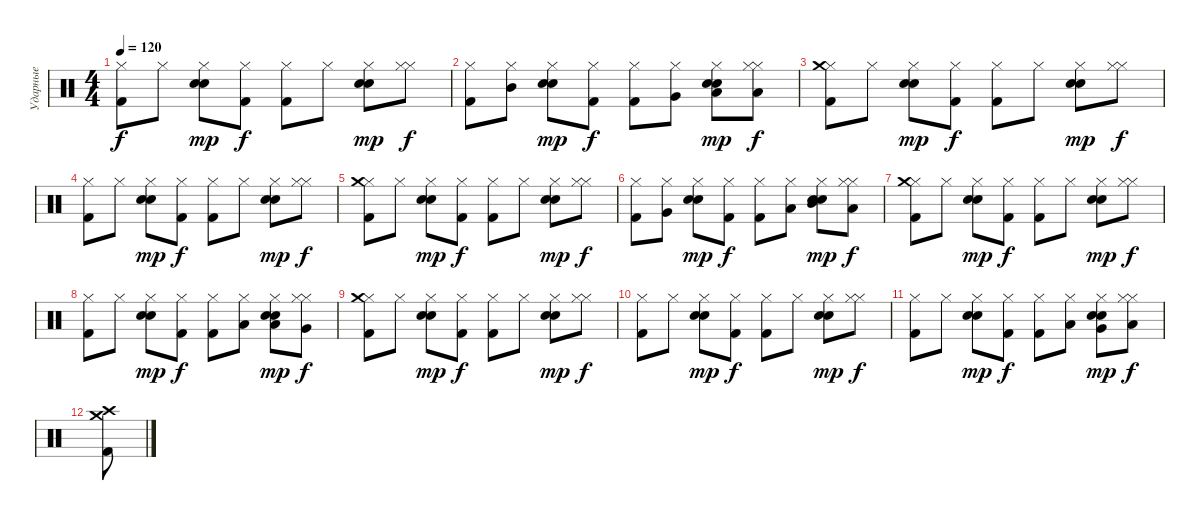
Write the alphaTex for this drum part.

\track ("Ударные" "Ударные") {instrument percussion}
\staff {score}
\articulation defaults
\ts (4 4)
\tempo 120
\clef neutral
\ks c
("Kick (hit) 2" "Hi-Hat (closed)").8{dy f} "Hi-Hat (closed)".8 ("Hand Clap (hit)" "Hi-Hat (closed)" "Electric Snare (hit)").8{dy mp} ("Kick (hit) 2" "Hi-Hat (closed)").8{dy f} ("Kick (hit) 2" "Hi-Hat (closed)").8 "Hi-Hat (closed)".8 ("Hand Clap (hit)" "Hi-Hat (closed)" "Electric Snare (hit)").8{dy mp} ("Hi-Hat (closed)" "Hi-Hat (closed)").8{dy f} |
("Kick (hit) 2" "Hi-Hat (closed)").8 ("Hi-Hat (closed)" "Mid Tom (hit)").8 ("Hand Clap (hit)" "Hi-Hat (closed)" "Electric Snare (hit)").8{dy mp} ("Kick (hit) 2" "Hi-Hat (closed)").8{dy f} ("Kick (hit) 2" "Hi-Hat (closed)").8 ("Hi-Hat (closed)" "Very Low Tom (hit)").8 ("Hand Clap (hit)" "Hi-Hat (closed)" "Electric Snare (hit)" "Low Floor Tom (hit)").8{dy mp} ("Hi-Hat (closed)" "Hi-Hat (closed)" "Low Tom (hit)").8{dy f} |
("Kick (hit) 2" "Hi-Hat (closed)" "Crash medium (hit)").8 "Hi-Hat (closed)".8 ("Hand Clap (hit)" "Hi-Hat (closed)" "Electric Snare (hit)").8{dy mp} ("Kick (hit) 2" "Hi-Hat (closed)").8{dy f} ("Kick (hit) 2" "Hi-Hat (closed)").8 "Hi-Hat (closed)".8 ("Hand Clap (hit)" "Hi-Hat (closed)" "Electric Snare (hit)").8{dy mp} ("Hi-Hat (closed)" "Hi-Hat (closed)").8{dy f} |
("Kick (hit) 2" "Hi-Hat (closed)").8 "Hi-Hat (closed)".8 ("Hand Clap (hit)" "Hi-Hat (closed)" "Electric Snare (hit)").8{dy mp} ("Kick (hit) 2" "Hi-Hat (closed)").8{dy f} ("Kick (hit) 2" "Hi-Hat (closed)").8 "Hi-Hat (closed)".8 ("Hand Clap (hit)" "Hi-Hat (closed)" "Electric Snare (hit)").8{dy mp} ("Hi-Hat (closed)" "Hi-Hat (closed)").8{dy f} |
("Kick (hit) 2" "Hi-Hat (closed)" "Crash medium (hit)").8 "Hi-Hat (closed)".8 ("Hand Clap (hit)" "Hi-Hat (closed)" "Electric Snare (hit)").8{dy mp} ("Kick (hit) 2" "Hi-Hat (closed)").8{dy f} ("Kick (hit) 2" "Hi-Hat (closed)").8 "Hi-Hat (closed)".8 ("Hand Clap (hit)" "Hi-Hat (closed)" "Electric Snare (hit)").8{dy mp} ("Hi-Hat (closed)" "Hi-Hat (closed)").8{dy f} |
("Kick (hit) 2" "Hi-Hat (closed)").8 ("Hi-Hat (closed)" "Very Low Tom (hit)").8 ("Hand Clap (hit)" "Hi-Hat (closed)" "Electric Snare (hit)").8{dy mp} ("Kick (hit) 2" "Hi-Hat (closed)").8{dy f} ("Kick (hit) 2" "Hi-Hat (closed)").8 ("Hi-Hat (closed)" "Low Tom (hit)").8 ("Hand Clap (hit)" "Hi-Hat (closed)" "Electric Snare (hit)" "Mid Tom (hit)").8{dy mp} ("Hi-Hat (closed)" "Hi-Hat (closed)" "Low Floor Tom (hit)").8{dy f} |
("Kick (hit) 2" "Hi-Hat (closed)" "Crash medium (hit)").8 "Hi-Hat (closed)".8 ("Hand Clap (hit)" "Hi-Hat (closed)" "Electric Snare (hit)").8{dy mp} ("Kick (hit) 2" "Hi-Hat (closed)").8{dy f} ("Kick (hit) 2" "Hi-Hat (closed)").8 "Hi-Hat (closed)".8 ("Hand Clap (hit)" "Hi-Hat (closed)" "Electric Snare (hit)").8{dy mp} ("Hi-Hat (closed)" "Hi-Hat (closed)").8{dy f} |
("Kick (hit) 2" "Hi-Hat (closed)").8 "Hi-Hat (closed)".8 ("Hand Clap (hit)" "Hi-Hat (closed)" "Electric Snare (hit)").8{dy mp} ("Kick (hit) 2" "Hi-Hat (closed)").8{dy f} ("Kick (hit) 2" "Hi-Hat (closed)").8 ("Hi-Hat (closed)" "Low Tom (hit)").8 ("Hand Clap (hit)" "Hi-Hat (closed)" "Electric Snare (hit)" "Low Floor Tom (hit)").8{dy mp} ("Hi-Hat (closed)" "Hi-Hat (closed)" "Very Low Tom (hit)").8{dy f} |
("Kick (hit) 2" "Hi-Hat (closed)" "Crash medium (hit)").8 "Hi-Hat (closed)".8 ("Hand Clap (hit)" "Hi-Hat (closed)" "Electric Snare (hit)").8{dy mp} ("Kick (hit) 2" "Hi-Hat (closed)").8{dy f} ("Kick (hit) 2" "Hi-Hat (closed)").8 "Hi-Hat (closed)".8 ("Hand Clap (hit)" "Hi-Hat (closed)" "Electric Snare (hit)").8{dy mp} ("Hi-Hat (closed)" "Hi-Hat (closed)").8{dy f} |
("Kick (hit) 2" "Hi-Hat (closed)").8 "Hi-Hat (closed)".8 ("Hand Clap (hit)" "Hi-Hat (closed)" "Electric Snare (hit)").8{dy mp} ("Kick (hit) 2" "Hi-Hat (closed)").8{dy f} ("Kick (hit) 2" "Hi-Hat (closed)").8 "Hi-Hat (closed)".8 ("Hand Clap (hit)" "Hi-Hat (closed)" "Electric Snare (hit)").8{dy mp} ("Hi-Hat (closed)" "Hi-Hat (closed)").8{dy f} |
("Kick (hit) 2" "Hi-Hat (closed)").8 "Hi-Hat (closed)".8 ("Hand Clap (hit)" "Hi-Hat (closed)" "Electric Snare (hit)").8{dy mp} ("Kick (hit) 2" "Hi-Hat (closed)").8{dy f} ("Kick (hit) 2" "Hi-Hat (closed)").8 ("Hi-Hat (closed)" "Low Floor Tom (hit)").8 ("Hand Clap (hit)" "Hi-Hat (closed)" "Electric Snare (hit)" "Very Low Tom (hit)").8{dy mp} ("Hi-Hat (closed)" "Hi-Hat (closed)" "Low Tom (hit)").8{dy f} |
("Crash medium (hit)" "Crash high (hit)" "Kick (hit) 2").8
